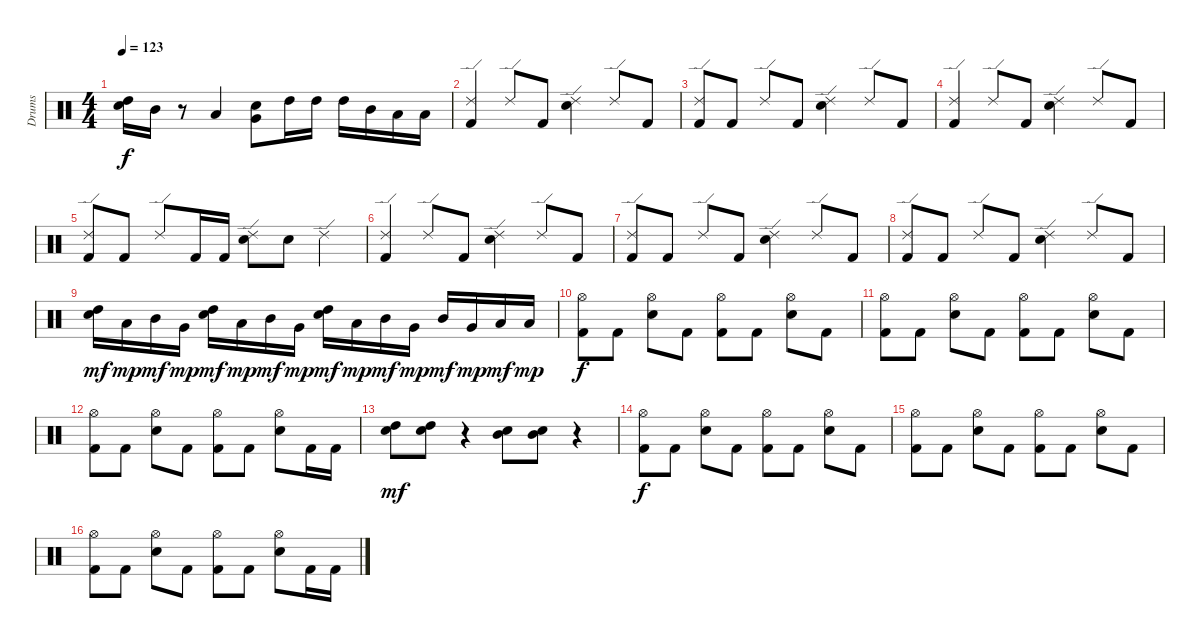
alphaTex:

\track ("Drums" "Drums") {instrument percussion}
\staff {score}
\articulation defaults
\ts (4 4)
\tempo 123
\clef neutral
\ks c
("Snare (hit) 2" "High Tom (hit)").16{dy f} "Mid Tom (hit)".16 r.8 "Low Tom (hit)".4 ("Snare (hit) 2" "Very Low Tom (hit)").8 "High Tom (hit)".16 "High Tom (hit)".16 "High Tom (hit)".16 "Mid Tom (hit)".16 "Low Tom (hit)".16 "Low Floor Tom (hit)".16 |
("Kick (hit) 2" "Ride (edge) 2").4 "Ride (edge) 2".8 "Kick (hit) 2".8 ("Snare (hit) 2" "Ride (edge) 2").4 "Ride (edge) 2".8 "Kick (hit) 2".8 |
("Kick (hit) 2" "Ride (edge) 2").8 "Kick (hit) 2".8 "Ride (edge) 2".8 "Kick (hit) 2".8 ("Snare (hit) 2" "Ride (edge) 2").4 "Ride (edge) 2".8 "Kick (hit) 2".8 |
("Kick (hit) 2" "Ride (edge) 2").4 "Ride (edge) 2".8 "Kick (hit) 2".8 ("Snare (hit) 2" "Ride (edge) 2").4 "Ride (edge) 2".8 "Kick (hit) 2".8 |
("Kick (hit) 2" "Ride (edge) 2").8 "Kick (hit) 2".8 "Ride (edge) 2".8 "Kick (hit) 2".16 "Kick (hit) 2".16 ("Snare (hit) 2" "Ride (edge) 2").8 "Snare (hit) 2".8 "Ride (edge) 2".4 |
("Kick (hit) 2" "Ride (edge) 2").4 "Ride (edge) 2".8 "Kick (hit) 2".8 ("Snare (hit) 2" "Ride (edge) 2").4 "Ride (edge) 2".8 "Kick (hit) 2".8 |
("Kick (hit) 2" "Ride (edge) 2").8 "Kick (hit) 2".8 "Ride (edge) 2".8 "Kick (hit) 2".8 ("Snare (hit) 2" "Ride (edge) 2").4 "Ride (edge) 2".8 "Kick (hit) 2".8 |
("Kick (hit) 2" "Ride (edge) 2").8 "Kick (hit) 2".8 "Ride (edge) 2".8 "Kick (hit) 2".8 ("Snare (hit) 2" "Ride (edge) 2").4 "Ride (edge) 2".8 "Kick (hit) 2".8 |
("Snare (hit) 2" "High Tom (hit)").16{dy mf} "Low Tom (hit)".16{dy mp} "Mid Tom (hit)".16{dy mf} "Very Low Tom (hit)".16{dy mp} ("Snare (hit) 2" "High Tom (hit)").16{dy mf} "Low Tom (hit)".16{dy mp} "Mid Tom (hit)".16{dy mf} "Very Low Tom (hit)".16{dy mp} ("Snare (hit) 2" "High Tom (hit)").16{dy mf} "Low Tom (hit)".16{dy mp} "Mid Tom (hit)".16{dy mf} "Very Low Tom (hit)".16{dy mp} "Mid Tom (hit)".16{dy mf} "Very Low Tom (hit)".16{dy mp} "Low Tom (hit)".16{dy mf} "Low Floor Tom (hit)".16{dy mp} |
("Kick (hit) 2" "Hi-Hat (open)").8{dy f} "Kick (hit) 2".8 ("Snare (hit) 2" "Hi-Hat (open)").8 "Kick (hit) 2".8 ("Kick (hit) 2" "Hi-Hat (open)").8 "Kick (hit) 2".8 ("Snare (hit) 2" "Hi-Hat (open)").8 "Kick (hit) 2".8 |
("Kick (hit) 2" "Hi-Hat (open)").8 "Kick (hit) 2".8 ("Snare (hit) 2" "Hi-Hat (open)").8 "Kick (hit) 2".8 ("Kick (hit) 2" "Hi-Hat (open)").8 "Kick (hit) 2".8 ("Snare (hit) 2" "Hi-Hat (open)").8 "Kick (hit) 2".8 |
("Kick (hit) 2" "Hi-Hat (open)").8 "Kick (hit) 2".8 ("Snare (hit) 2" "Hi-Hat (open)").8 "Kick (hit) 2".8 ("Kick (hit) 2" "Hi-Hat (open)").8 "Kick (hit) 2".8 ("Snare (hit) 2" "Hi-Hat (open)").8 "Kick (hit) 2".16 "Kick (hit) 2".16 |
("Snare (hit) 2" "High Tom (hit)").8{dy mf} ("Snare (hit) 2" "High Tom (hit)").8 r.4 ("Snare (hit) 2" "Mid Tom (hit)").8 ("Snare (hit) 2" "Mid Tom (hit)").8 r.4 |
("Kick (hit) 2" "Hi-Hat (open)").8{dy f} "Kick (hit) 2".8 ("Snare (hit) 2" "Hi-Hat (open)").8 "Kick (hit) 2".8 ("Kick (hit) 2" "Hi-Hat (open)").8 "Kick (hit) 2".8 ("Snare (hit) 2" "Hi-Hat (open)").8 "Kick (hit) 2".8 |
("Kick (hit) 2" "Hi-Hat (open)").8 "Kick (hit) 2".8 ("Snare (hit) 2" "Hi-Hat (open)").8 "Kick (hit) 2".8 ("Kick (hit) 2" "Hi-Hat (open)").8 "Kick (hit) 2".8 ("Snare (hit) 2" "Hi-Hat (open)").8 "Kick (hit) 2".8 |
("Kick (hit) 2" "Hi-Hat (open)").8 "Kick (hit) 2".8 ("Snare (hit) 2" "Hi-Hat (open)").8 "Kick (hit) 2".8 ("Kick (hit) 2" "Hi-Hat (open)").8 "Kick (hit) 2".8 ("Snare (hit) 2" "Hi-Hat (open)").8 "Kick (hit) 2".16 "Kick (hit) 2".16
